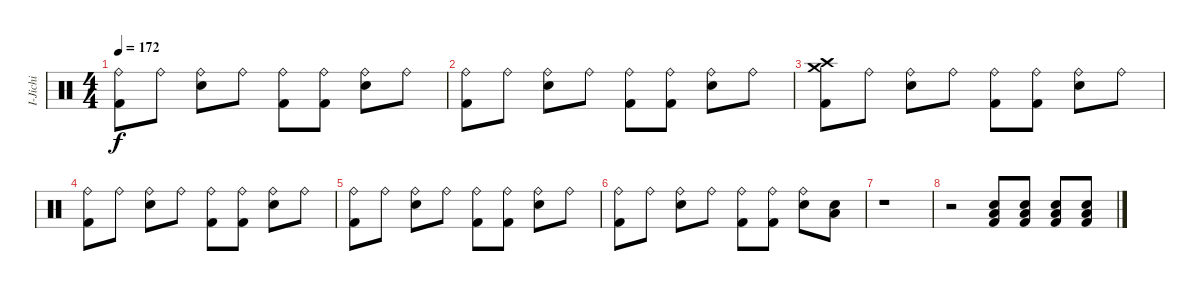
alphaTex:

\track ("I-Jichi" "I-Jichi") {instrument percussion}
\staff {score}
\articulation defaults
\ts (4 4)
\tempo 172
\clef neutral
\ks c
("Ride (bell)" "Kick (hit) 2").8{dy f} "Ride (bell)".8 ("Ride (bell)" "Electric Snare (hit)").8 "Ride (bell)".8 ("Ride (bell)" "Kick (hit) 2").8 ("Ride (bell)" "Kick (hit) 2").8 ("Ride (bell)" "Electric Snare (hit)").8 "Ride (bell)".8 |
("Ride (bell)" "Kick (hit) 2").8 "Ride (bell)".8 ("Ride (bell)" "Electric Snare (hit)").8 "Ride (bell)".8 ("Ride (bell)" "Kick (hit) 2").8 ("Ride (bell)" "Kick (hit) 2").8 ("Ride (bell)" "Electric Snare (hit)").8 "Ride (bell)".8 |
("Crash high (hit)" "Crash medium (hit)" "Kick (hit) 2").8 "Ride (bell)".8 ("Ride (bell)" "Electric Snare (hit)").8 "Ride (bell)".8 ("Ride (bell)" "Kick (hit) 2").8 ("Ride (bell)" "Kick (hit) 2").8 ("Ride (bell)" "Electric Snare (hit)").8 "Ride (bell)".8 |
("Ride (bell)" "Kick (hit) 2").8 "Ride (bell)".8 ("Ride (bell)" "Electric Snare (hit)").8 "Ride (bell)".8 ("Ride (bell)" "Kick (hit) 2").8 ("Ride (bell)" "Kick (hit) 2").8 ("Ride (bell)" "Electric Snare (hit)").8 "Ride (bell)".8 |
("Ride (bell)" "Kick (hit) 2").8 "Ride (bell)".8 ("Ride (bell)" "Electric Snare (hit)").8 "Ride (bell)".8 ("Ride (bell)" "Kick (hit) 2").8 ("Ride (bell)" "Kick (hit) 2").8 ("Ride (bell)" "Electric Snare (hit)").8 "Ride (bell)".8 |
("Ride (bell)" "Kick (hit) 2").8 "Ride (bell)".8 ("Ride (bell)" "Electric Snare (hit)").8 "Ride (bell)".8 ("Ride (bell)" "Kick (hit) 2").8 ("Ride (bell)" "Kick (hit) 2").8 ("Ride (bell)" "Electric Snare (hit)").8 ("Electric Snare (hit)" "Low Floor Tom (hit)").8 |
r.1 |
r.2 ("Low Floor Tom (hit)" "Electric Snare (hit)" "Kick (hit) 2").8 ("Low Floor Tom (hit)" "Electric Snare (hit)" "Kick (hit) 2").8 ("Low Floor Tom (hit)" "Electric Snare (hit)" "Kick (hit) 2").8 ("Low Floor Tom (hit)" "Electric Snare (hit)" "Kick (hit) 2").8
